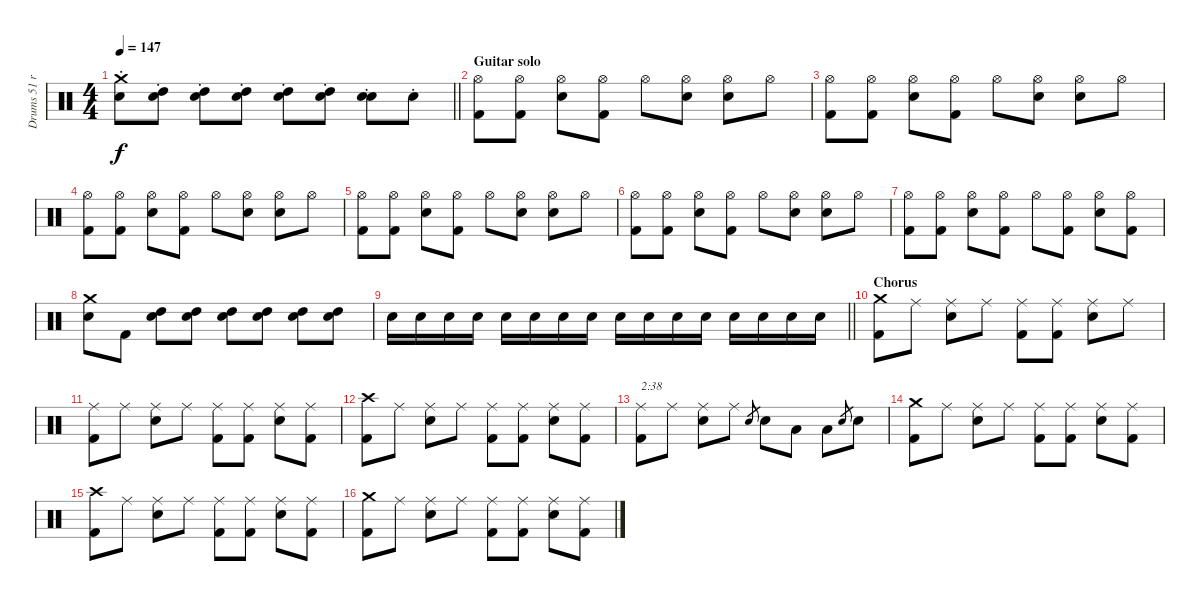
\track ("Drums 51 ride" "Drums 51 r") {mute instrument percussion}
\staff {score}
\articulation defaults
\ts (4 4)
\tempo 147
\clef neutral
\barLineRight lightlight
\ks c
("Crash medium (hit)"{st} "Snare (hit) 2"{st}).8{dy f} ("High Tom (hit)" "Snare (hit) 2"{st}).8 ("High Tom (hit)" "Snare (hit) 2"{st}).8 ("High Tom (hit)" "Snare (hit) 2"{st}).8 ("High Tom (hit)" "Snare (hit) 2"{st}).8 ("High Tom (hit)" "Snare (hit) 2"{st}).8 ("Snare (hit) 2" "Snare (hit) 2"{st}).8 "Snare (hit) 2"{st}.8 |
\section ("" "Guitar solo")
("Hi-Hat (open)" "Kick (hit) 2").8 ("Hi-Hat (open)" "Kick (hit) 2").8 ("Hi-Hat (open)" "Snare (hit) 2").8 ("Hi-Hat (open)" "Kick (hit) 2").8 "Hi-Hat (open)".8 ("Hi-Hat (open)" "Snare (hit) 2").8 ("Hi-Hat (open)" "Snare (hit) 2").8 "Hi-Hat (open)".8 |
("Hi-Hat (open)" "Kick (hit) 2").8 ("Hi-Hat (open)" "Kick (hit) 2").8 ("Hi-Hat (open)" "Snare (hit) 2").8 ("Hi-Hat (open)" "Kick (hit) 2").8 "Hi-Hat (open)".8 ("Hi-Hat (open)" "Snare (hit) 2").8 ("Hi-Hat (open)" "Snare (hit) 2").8 "Hi-Hat (open)".8 |
("Hi-Hat (open)" "Kick (hit) 2").8 ("Hi-Hat (open)" "Kick (hit) 2").8 ("Hi-Hat (open)" "Snare (hit) 2").8 ("Hi-Hat (open)" "Kick (hit) 2").8 "Hi-Hat (open)".8 ("Hi-Hat (open)" "Snare (hit) 2").8 ("Hi-Hat (open)" "Snare (hit) 2").8 "Hi-Hat (open)".8 |
("Hi-Hat (open)" "Kick (hit) 2").8 ("Hi-Hat (open)" "Kick (hit) 2").8 ("Hi-Hat (open)" "Snare (hit) 2").8 ("Hi-Hat (open)" "Kick (hit) 2").8 "Hi-Hat (open)".8 ("Hi-Hat (open)" "Snare (hit) 2").8 ("Hi-Hat (open)" "Snare (hit) 2").8 "Hi-Hat (open)".8 |
("Hi-Hat (open)" "Kick (hit) 2").8 ("Hi-Hat (open)" "Kick (hit) 2").8 ("Hi-Hat (open)" "Snare (hit) 2").8 ("Hi-Hat (open)" "Kick (hit) 2").8 "Hi-Hat (open)".8 ("Hi-Hat (open)" "Snare (hit) 2").8 ("Hi-Hat (open)" "Snare (hit) 2").8 "Hi-Hat (open)".8 |
("Hi-Hat (open)" "Kick (hit) 2").8 ("Hi-Hat (open)" "Kick (hit) 2").8 ("Hi-Hat (open)" "Snare (hit) 2").8 ("Hi-Hat (open)" "Kick (hit) 2").8 "Hi-Hat (open)".8 ("Hi-Hat (open)" "Kick (hit) 2").8 ("Hi-Hat (open)" "Snare (hit) 2").8 ("Hi-Hat (open)" "Kick (hit) 2").8 |
("Crash medium (hit)" "Snare (hit) 2").8 "Kick (hit) 2".8 ("High Tom (hit)" "Snare (hit) 2").8 ("High Tom (hit)" "Snare (hit) 2").8 ("High Tom (hit)" "Snare (hit) 2").8 ("High Tom (hit)" "Snare (hit) 2").8 ("High Tom (hit)" "Snare (hit) 2").8 ("High Tom (hit)" "Snare (hit) 2").8 |
\barLineRight lightlight "Snare (hit) 2".16 "Snare (hit) 2".16 "Snare (hit) 2".16 "Snare (hit) 2".16 "Snare (hit) 2".16 "Snare (hit) 2".16 "Snare (hit) 2".16 "Snare (hit) 2".16 "Snare (hit) 2".16 "Snare (hit) 2".16 "Snare (hit) 2".16 "Snare (hit) 2".16 "Snare (hit) 2".16 "Snare (hit) 2".16 "Snare (hit) 2".16 "Snare (hit) 2".16
|
\section ("" "Chorus")
("Crash medium (hit)" "Kick (hit) 2").8 "Ride (middle)".8 ("Ride (middle)" "Snare (hit) 2").8 "Ride (middle)".8 ("Ride (middle)" "Kick (hit) 2").8 ("Ride (middle)" "Kick (hit) 2").8 ("Ride (middle)" "Snare (hit) 2").8 "Ride (middle)".8 |
("Ride (middle)" "Kick (hit) 2").8 "Ride (middle)".8 ("Ride (middle)" "Snare (hit) 2").8 "Ride (middle)".8 ("Ride (middle)" "Kick (hit) 2").8 ("Ride (middle)" "Kick (hit) 2").8 ("Ride (middle)" "Snare (hit) 2").8 ("Ride (middle)" "Kick (hit) 2").8 |
("Crash high (hit)" "Kick (hit) 2").8 "Ride (middle)".8 ("Ride (middle)" "Snare (hit) 2").8 "Ride (middle)".8 ("Ride (middle)" "Kick (hit) 2").8 ("Ride (middle)" "Kick (hit) 2").8 ("Ride (middle)" "Snare (hit) 2").8 ("Ride (middle)" "Kick (hit) 2").8 |
("Ride (middle)" "Kick (hit) 2").8{txt "2:38"} "Ride (middle)".8 ("Ride (middle)" "Snare (hit) 2").8 "Ride (middle)".8 "Snare (hit) 2".8{gr} "Snare (hit) 2".8 "Low Tom (hit)".8 "Low Tom (hit)".8 "Snare (hit) 2".8{gr} "Snare (hit) 2".8 |
("Crash medium (hit)" "Kick (hit) 2").8 "Ride (middle)".8 ("Ride (middle)" "Snare (hit) 2").8 "Ride (middle)".8 ("Ride (middle)" "Kick (hit) 2").8 ("Ride (middle)" "Kick (hit) 2").8 ("Ride (middle)" "Snare (hit) 2").8 ("Ride (middle)" "Kick (hit) 2").8 |
("Crash high (hit)" "Kick (hit) 2").8 "Ride (middle)".8 ("Ride (middle)" "Snare (hit) 2").8 "Ride (middle)".8 ("Ride (middle)" "Kick (hit) 2").8 ("Ride (middle)" "Kick (hit) 2").8 ("Ride (middle)" "Snare (hit) 2").8 ("Ride (middle)" "Kick (hit) 2").8 |
("Crash medium (hit)" "Kick (hit) 2").8 "Ride (middle)".8 ("Ride (middle)" "Snare (hit) 2").8 "Ride (middle)".8 ("Ride (middle)" "Kick (hit) 2").8 ("Ride (middle)" "Kick (hit) 2").8 ("Ride (middle)" "Snare (hit) 2").8 ("Ride (middle)" "Kick (hit) 2").8
